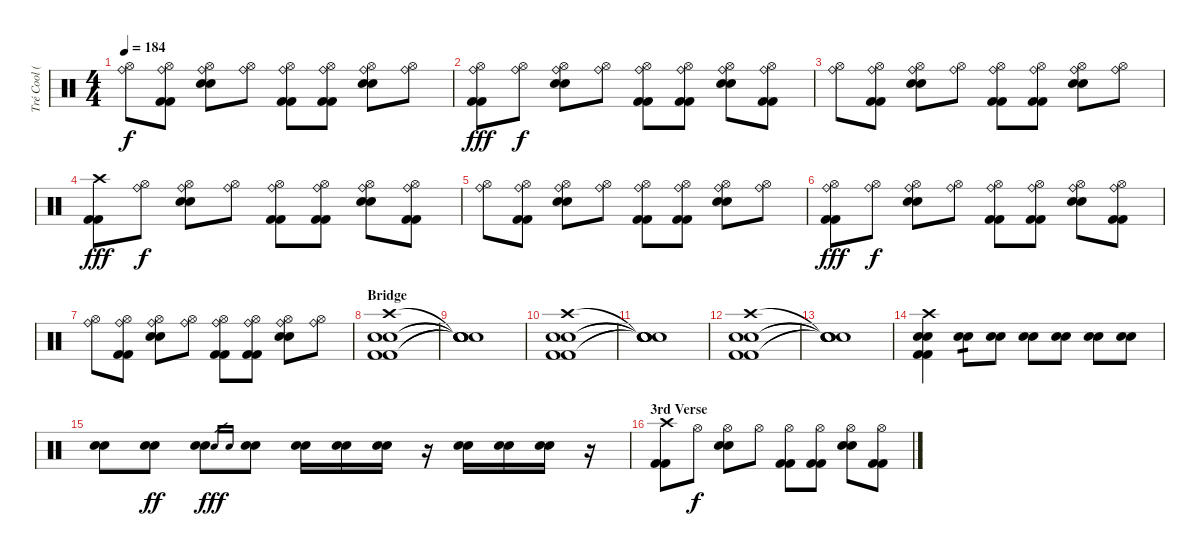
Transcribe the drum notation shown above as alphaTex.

\track ("Tré Cool (Drums)" "Tré Cool (") {instrument percussion}
\staff {score}
\articulation defaults
\ts (4 4)
\tempo 184
\clef neutral
\ks c
("Ride (bell)" "Hi-Hat (open)").8{dy f} ("Kick (hit) 2" "Kick (hit) 2" "Ride (bell)" "Hi-Hat (open)").8 ("Electric Snare (hit)" "Electric Snare (hit)" "Ride (bell)" "Hi-Hat (open)").8 ("Ride (bell)" "Hi-Hat (open)").8 ("Kick (hit) 2" "Kick (hit) 2" "Ride (bell)" "Hi-Hat (open)").8 ("Kick (hit) 2" "Kick (hit) 2" "Ride (bell)" "Hi-Hat (open)").8 ("Electric Snare (hit)" "Electric Snare (hit)" "Ride (bell)" "Hi-Hat (open)").8 ("Ride (bell)" "Hi-Hat (open)").8 |
("Kick (hit) 2" "Kick (hit) 2" "Ride (bell)" "Hi-Hat (open)").8{dy fff} ("Ride (bell)" "Hi-Hat (open)").8{dy f} ("Electric Snare (hit)" "Electric Snare (hit)" "Ride (bell)" "Hi-Hat (open)").8 ("Ride (bell)" "Hi-Hat (open)").8 ("Kick (hit) 2" "Kick (hit) 2" "Ride (bell)" "Hi-Hat (open)").8 ("Kick (hit) 2" "Kick (hit) 2" "Ride (bell)" "Hi-Hat (open)").8 ("Electric Snare (hit)" "Electric Snare (hit)" "Ride (bell)" "Hi-Hat (open)").8 ("Kick (hit) 2" "Kick (hit) 2" "Ride (bell)" "Hi-Hat (open)").8 |
("Ride (bell)" "Hi-Hat (open)").8 ("Kick (hit) 2" "Kick (hit) 2" "Ride (bell)" "Hi-Hat (open)").8 ("Electric Snare (hit)" "Electric Snare (hit)" "Ride (bell)" "Hi-Hat (open)").8 ("Ride (bell)" "Hi-Hat (open)").8 ("Kick (hit) 2" "Kick (hit) 2" "Ride (bell)" "Hi-Hat (open)").8 ("Kick (hit) 2" "Kick (hit) 2" "Ride (bell)" "Hi-Hat (open)").8 ("Electric Snare (hit)" "Electric Snare (hit)" "Ride (bell)" "Hi-Hat (open)").8 ("Ride (bell)" "Hi-Hat (open)").8 |
("Kick (hit) 2" "Kick (hit) 2" "Crash high (hit)").8{dy fff} ("Ride (bell)" "Hi-Hat (open)").8{dy f} ("Electric Snare (hit)" "Electric Snare (hit)" "Ride (bell)" "Hi-Hat (open)").8 ("Ride (bell)" "Hi-Hat (open)").8 ("Kick (hit) 2" "Kick (hit) 2" "Ride (bell)" "Hi-Hat (open)").8 ("Kick (hit) 2" "Kick (hit) 2" "Ride (bell)" "Hi-Hat (open)").8 ("Electric Snare (hit)" "Electric Snare (hit)" "Ride (bell)" "Hi-Hat (open)").8 ("Kick (hit) 2" "Kick (hit) 2" "Ride (bell)" "Hi-Hat (open)").8 |
("Ride (bell)" "Hi-Hat (open)").8 ("Kick (hit) 2" "Kick (hit) 2" "Ride (bell)" "Hi-Hat (open)").8 ("Electric Snare (hit)" "Electric Snare (hit)" "Ride (bell)" "Hi-Hat (open)").8 ("Ride (bell)" "Hi-Hat (open)").8 ("Kick (hit) 2" "Kick (hit) 2" "Ride (bell)" "Hi-Hat (open)").8 ("Kick (hit) 2" "Kick (hit) 2" "Ride (bell)" "Hi-Hat (open)").8 ("Electric Snare (hit)" "Electric Snare (hit)" "Ride (bell)" "Hi-Hat (open)").8 ("Ride (bell)" "Hi-Hat (open)").8 |
("Kick (hit) 2" "Kick (hit) 2" "Ride (bell)" "Hi-Hat (open)").8{dy fff} ("Ride (bell)" "Hi-Hat (open)").8{dy f} ("Electric Snare (hit)" "Electric Snare (hit)" "Ride (bell)" "Hi-Hat (open)").8 ("Ride (bell)" "Hi-Hat (open)").8 ("Kick (hit) 2" "Kick (hit) 2" "Ride (bell)" "Hi-Hat (open)").8 ("Kick (hit) 2" "Kick (hit) 2" "Ride (bell)" "Hi-Hat (open)").8 ("Electric Snare (hit)" "Electric Snare (hit)" "Ride (bell)" "Hi-Hat (open)").8 ("Kick (hit) 2" "Kick (hit) 2" "Ride (bell)" "Hi-Hat (open)").8 |
("Ride (bell)" "Hi-Hat (open)").8 ("Kick (hit) 2" "Kick (hit) 2" "Ride (bell)" "Hi-Hat (open)").8 ("Electric Snare (hit)" "Electric Snare (hit)" "Ride (bell)" "Hi-Hat (open)").8 ("Ride (bell)" "Hi-Hat (open)").8 ("Kick (hit) 2" "Kick (hit) 2" "Ride (bell)" "Hi-Hat (open)").8 ("Kick (hit) 2" "Kick (hit) 2" "Ride (bell)" "Hi-Hat (open)").8 ("Electric Snare (hit)" "Electric Snare (hit)" "Ride (bell)" "Hi-Hat (open)").8 ("Ride (bell)" "Hi-Hat (open)").8 |
\section ("" "Bridge")
("Kick (hit) 2" "Kick (hit) 2" "Electric Snare (hit)" "Electric Snare (hit)" "Crash high (hit)").1 |
("Snare (hit)"{t} "Snare (hit)"{t} "Snare (hit)"{t} "Snare (hit)"{t} "Snare (hit)"{t}).1 |
("Kick (hit) 2" "Kick (hit) 2" "Electric Snare (hit)" "Electric Snare (hit)" "Crash high (hit)").1 |
("Snare (hit)"{t} "Snare (hit)"{t} "Snare (hit)"{t} "Snare (hit)"{t} "Snare (hit)"{t}).1 |
("Kick (hit) 2" "Kick (hit) 2" "Electric Snare (hit)" "Electric Snare (hit)" "Crash high (hit)").1 |
("Snare (hit)"{t} "Snare (hit)"{t} "Snare (hit)"{t} "Snare (hit)"{t} "Snare (hit)"{t}).1 |
("Kick (hit) 2" "Kick (hit) 2" "Electric Snare (hit)" "Electric Snare (hit)" "Crash high (hit)").4 ("Electric Snare (hit)" "Snare (hit) 2").8{tp 1 volume 10} ("Electric Snare (hit)" "Snare (hit) 2").8{volume 16} ("Electric Snare (hit)" "Snare (hit) 2").8 ("Electric Snare (hit)" "Snare (hit) 2").8 ("Electric Snare (hit)" "Snare (hit) 2").8 ("Electric Snare (hit)" "Snare (hit) 2").8 |
("Electric Snare (hit)" "Snare (hit) 2").8 ("Electric Snare (hit)" "Snare (hit) 2").8{dy ff} ("Electric Snare (hit)" "Snare (hit) 2").8 "Electric Snare (hit)".16{gr dy fff} "Snare (hit) 2"{h}.16{gr} ("Electric Snare (hit)" "Snare (hit) 2").8 ("Electric Snare (hit)" "Snare (hit) 2").16 ("Electric Snare (hit)" "Snare (hit) 2").16 ("Electric Snare (hit)" "Snare (hit) 2").16 r.16 ("Electric Snare (hit)" "Snare (hit) 2").16 ("Electric Snare (hit)" "Snare (hit) 2").16 ("Electric Snare (hit)" "Snare (hit) 2").16 r.16 |
\section ("" "3rd Verse")
("Kick (hit) 2" "Kick (hit) 2" "Crash high (hit)").8 "Hi-Hat (open)".8{dy f} ("Electric Snare (hit)" "Electric Snare (hit)" "Hi-Hat (open)").8 "Hi-Hat (open)".8 ("Kick (hit) 2" "Kick (hit) 2" "Hi-Hat (open)").8 ("Kick (hit) 2" "Kick (hit) 2" "Hi-Hat (open)").8 ("Electric Snare (hit)" "Electric Snare (hit)" "Hi-Hat (open)").8 ("Kick (hit) 2" "Kick (hit) 2" "Hi-Hat (open)").8
